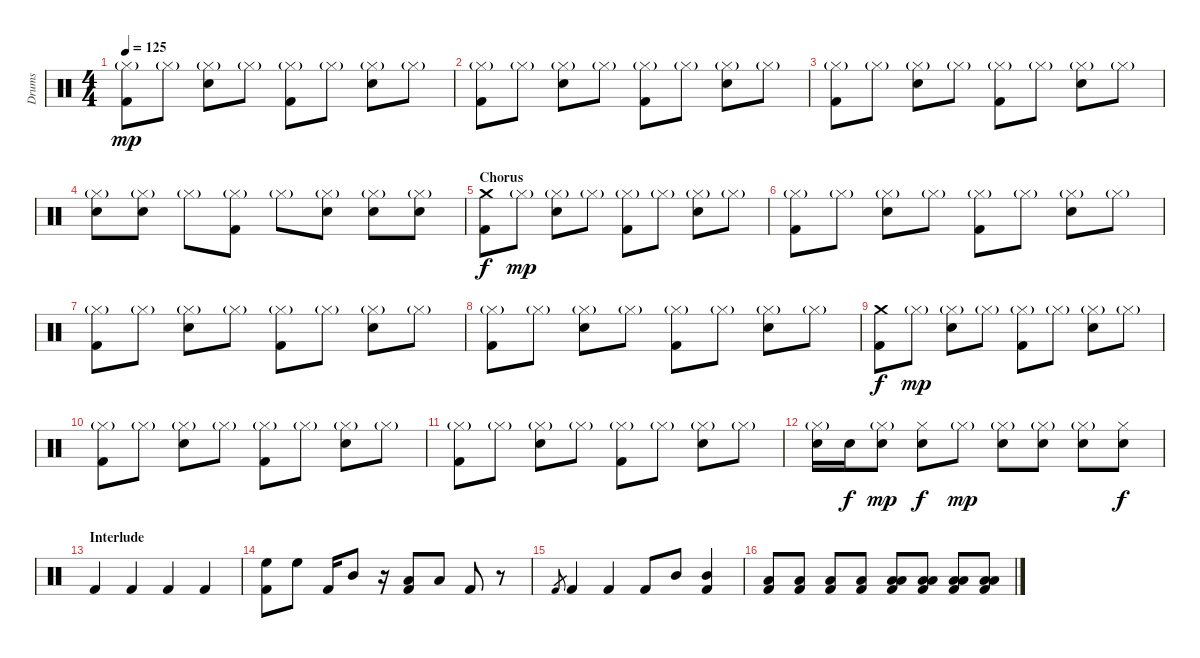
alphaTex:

\track ("Drums" "Drums") {instrument percussion}
\staff {score}
\articulation defaults
\ts (4 4)
\tempo 125
\clef neutral
\ks c
("Hi-Hat (closed)"{g} "Kick (hit) 2").8{dy mp balance 8} "Hi-Hat (closed)"{g}.8 ("Hi-Hat (closed)"{g} "Snare (hit) 2").8 "Hi-Hat (closed)"{g}.8 ("Hi-Hat (closed)"{g} "Kick (hit) 2").8 "Hi-Hat (closed)"{g}.8 ("Hi-Hat (closed)"{g} "Snare (hit) 2").8 "Hi-Hat (closed)"{g}.8 |
("Hi-Hat (closed)"{g} "Kick (hit) 2").8 "Hi-Hat (closed)"{g}.8 ("Hi-Hat (closed)"{g} "Snare (hit) 2").8 "Hi-Hat (closed)"{g}.8 ("Hi-Hat (closed)"{g} "Kick (hit) 2").8 "Hi-Hat (closed)"{g}.8 ("Hi-Hat (closed)"{g} "Snare (hit) 2").8 "Hi-Hat (closed)"{g}.8 |
("Hi-Hat (closed)"{g} "Kick (hit) 2").8 "Hi-Hat (closed)"{g}.8 ("Hi-Hat (closed)"{g} "Snare (hit) 2").8 "Hi-Hat (closed)"{g}.8 ("Hi-Hat (closed)"{g} "Kick (hit) 2").8 "Hi-Hat (closed)"{g}.8 ("Hi-Hat (closed)"{g} "Snare (hit) 2").8 "Hi-Hat (closed)"{g}.8 |
("Hi-Hat (closed)"{g} "Snare (hit) 2").8 ("Hi-Hat (closed)"{g} "Snare (hit) 2").8 "Hi-Hat (closed)"{g}.8 ("Hi-Hat (closed)"{g} "Kick (hit) 2").8 "Hi-Hat (closed)"{g}.8 ("Hi-Hat (closed)"{g} "Snare (hit) 2").8 ("Hi-Hat (closed)"{g} "Snare (hit) 2").8 ("Hi-Hat (closed)"{g} "Snare (hit) 2").8 |
\section ("" "Chorus")
("Crash medium (hit)" "Kick (hit) 2").8{dy f} "Hi-Hat (closed)"{g}.8{dy mp} ("Hi-Hat (closed)"{g} "Snare (hit) 2").8 "Hi-Hat (closed)"{g}.8 ("Hi-Hat (closed)"{g} "Kick (hit) 2").8 "Hi-Hat (closed)"{g}.8 ("Hi-Hat (closed)"{g} "Snare (hit) 2").8 "Hi-Hat (closed)"{g}.8 |
("Hi-Hat (closed)"{g} "Kick (hit) 2").8 "Hi-Hat (closed)"{g}.8 ("Hi-Hat (closed)"{g} "Snare (hit) 2").8 "Hi-Hat (closed)"{g}.8 ("Hi-Hat (closed)"{g} "Kick (hit) 2").8 "Hi-Hat (closed)"{g}.8 ("Hi-Hat (closed)"{g} "Snare (hit) 2").8 "Hi-Hat (closed)"{g}.8 |
("Hi-Hat (closed)"{g} "Kick (hit) 2").8 "Hi-Hat (closed)"{g}.8 ("Hi-Hat (closed)"{g} "Snare (hit) 2").8 "Hi-Hat (closed)"{g}.8 ("Hi-Hat (closed)"{g} "Kick (hit) 2").8 "Hi-Hat (closed)"{g}.8 ("Hi-Hat (closed)"{g} "Snare (hit) 2").8 "Hi-Hat (closed)"{g}.8 |
("Hi-Hat (closed)"{g} "Kick (hit) 2").8 "Hi-Hat (closed)"{g}.8 ("Hi-Hat (closed)"{g} "Snare (hit) 2").8 "Hi-Hat (closed)"{g}.8 ("Hi-Hat (closed)"{g} "Kick (hit) 2").8 "Hi-Hat (closed)"{g}.8 ("Hi-Hat (closed)"{g} "Snare (hit) 2").8 "Hi-Hat (closed)"{g}.8 |
("Crash medium (hit)" "Kick (hit) 2").8{dy f} "Hi-Hat (closed)"{g}.8{dy mp} ("Hi-Hat (closed)"{g} "Snare (hit) 2").8 "Hi-Hat (closed)"{g}.8 ("Hi-Hat (closed)"{g} "Kick (hit) 2").8 "Hi-Hat (closed)"{g}.8 ("Hi-Hat (closed)"{g} "Snare (hit) 2").8 "Hi-Hat (closed)"{g}.8 |
("Hi-Hat (closed)"{g} "Kick (hit) 2").8 "Hi-Hat (closed)"{g}.8 ("Hi-Hat (closed)"{g} "Snare (hit) 2").8 "Hi-Hat (closed)"{g}.8 ("Hi-Hat (closed)"{g} "Kick (hit) 2").8 "Hi-Hat (closed)"{g}.8 ("Hi-Hat (closed)"{g} "Snare (hit) 2").8 "Hi-Hat (closed)"{g}.8 |
("Hi-Hat (closed)"{g} "Kick (hit) 2").8 "Hi-Hat (closed)"{g}.8 ("Hi-Hat (closed)"{g} "Snare (hit) 2").8 "Hi-Hat (closed)"{g}.8 ("Hi-Hat (closed)"{g} "Kick (hit) 2").8 "Hi-Hat (closed)"{g}.8 ("Hi-Hat (closed)"{g} "Snare (hit) 2").8 "Hi-Hat (closed)"{g}.8 |
("Hi-Hat (closed)"{g} "Snare (hit) 2").16 "Snare (hit) 2".16{dy f} ("Hi-Hat (closed)"{g} "Snare (hit) 2").8{dy mp} ("Hi-Hat (closed)" "Snare (hit) 2").8{dy f} "Hi-Hat (closed)"{g}.8{dy mp} ("Hi-Hat (closed)"{g} "Snare (hit) 2").8 ("Hi-Hat (closed)"{g} "Snare (hit) 2").8 ("Hi-Hat (closed)"{g} "Snare (hit) 2").8 ("Hi-Hat (closed)" "Snare (hit) 2").8{dy f} |
\section ("" "Interlude")
"Kick (hit) 2".4 "Kick (hit) 2".4 "Kick (hit) 2".4 "Kick (hit) 2".4 |
("High Floor Tom (hit)" "Kick (hit) 2").8 "High Floor Tom (hit)".8 "Kick (hit) 2".16 "Mid Tom (hit)".8 r.16 ("Low Tom (hit)" "Kick (hit) 2").8 "Low Tom (hit)".8 "Kick (hit) 2".8 r.8 |
"Kick (hit) 2".8{gr} "Kick (hit) 2".4 "Kick (hit) 2".4 "Kick (hit) 2".8 "Mid Tom (hit)".8 ("Mid Tom (hit)" "Kick (hit) 2").4 |
("Low Tom (hit)" "Kick (hit) 2").8 ("Low Tom (hit)" "Kick (hit) 2").8 ("Low Tom (hit)" "Kick (hit) 2").8 ("Low Tom (hit)" "Kick (hit) 2").8 ("Low Tom (hit)" "Kick (hit) 2" "Low Tom (hit)").8 ("Low Tom (hit)" "Kick (hit) 2" "Low Tom (hit)").8 ("Low Tom (hit)" "Kick (hit) 2" "Low Tom (hit)").8 ("Low Tom (hit)" "Kick (hit) 2" "Low Tom (hit)").8
